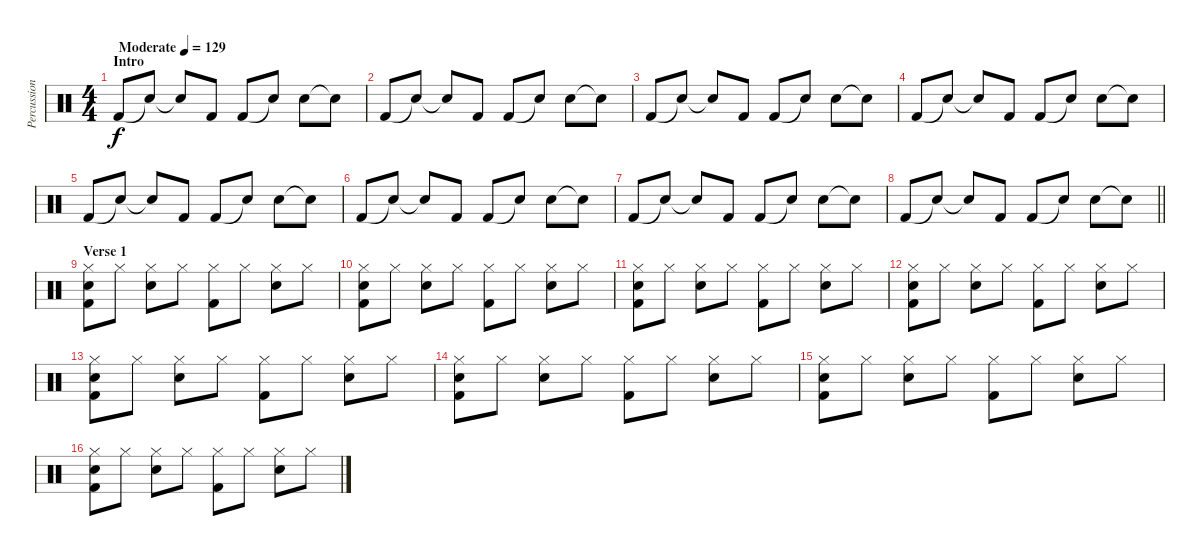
\track ("Percussion" "Percussion") {instrument percussion}
\staff {score}
\articulation defaults
\ts (4 4)
\section ("" "Intro")
\tempo (129 "Moderate")
\clef neutral
\ks c "Kick (hit) 2".8{dy f} "Snare (hit)"{t}.8 "Snare (hit)"{t}.8 "Kick (hit) 2".8 "Kick (hit) 2".8 "Snare (hit)"{t}.8 "Electric Snare (hit)".8 "Snare (hit)"{t}.8
|
"Kick (hit) 2".8 "Snare (hit)"{t}.8 "Snare (hit)"{t}.8 "Kick (hit) 2".8 "Kick (hit) 2".8 "Snare (hit)"{t}.8 "Electric Snare (hit)".8 "Snare (hit)"{t}.8 |
"Kick (hit) 2".8 "Snare (hit)"{t}.8 "Snare (hit)"{t}.8 "Kick (hit) 2".8 "Kick (hit) 2".8 "Snare (hit)"{t}.8 "Electric Snare (hit)".8 "Snare (hit)"{t}.8 |
"Kick (hit) 2".8 "Snare (hit)"{t}.8 "Snare (hit)"{t}.8 "Kick (hit) 2".8 "Kick (hit) 2".8 "Snare (hit)"{t}.8 "Electric Snare (hit)".8 "Snare (hit)"{t}.8 |
"Kick (hit) 2".8 "Snare (hit)"{t}.8 "Snare (hit)"{t}.8 "Kick (hit) 2".8 "Kick (hit) 2".8 "Snare (hit)"{t}.8 "Electric Snare (hit)".8 "Snare (hit)"{t}.8 |
"Kick (hit) 2".8 "Snare (hit)"{t}.8 "Snare (hit)"{t}.8 "Kick (hit) 2".8 "Kick (hit) 2".8 "Snare (hit)"{t}.8 "Electric Snare (hit)".8 "Snare (hit)"{t}.8 |
"Kick (hit) 2".8 "Snare (hit)"{t}.8 "Snare (hit)"{t}.8 "Kick (hit) 2".8 "Kick (hit) 2".8 "Snare (hit)"{t}.8 "Electric Snare (hit)".8 "Snare (hit)"{t}.8 |
\barLineRight lightlight "Kick (hit) 2".8 "Snare (hit)"{t}.8 "Snare (hit)"{t}.8 "Kick (hit) 2".8 "Kick (hit) 2".8 "Snare (hit)"{t}.8 "Electric Snare (hit)".8 "Snare (hit)"{t}.8
|
\section ("" "Verse 1")
("Hi-Hat (closed)" "Electric Snare (hit)" "Kick (hit) 2").8 "Hi-Hat (closed)".8 ("Hi-Hat (closed)" "Electric Snare (hit)").8 "Hi-Hat (closed)".8 ("Hi-Hat (closed)" "Kick (hit) 2").8 "Hi-Hat (closed)".8 ("Hi-Hat (closed)" "Electric Snare (hit)").8 "Hi-Hat (closed)".8 |
("Hi-Hat (closed)" "Electric Snare (hit)" "Kick (hit) 2").8 "Hi-Hat (closed)".8 ("Hi-Hat (closed)" "Electric Snare (hit)").8 "Hi-Hat (closed)".8 ("Hi-Hat (closed)" "Kick (hit) 2").8 "Hi-Hat (closed)".8 ("Hi-Hat (closed)" "Electric Snare (hit)").8 "Hi-Hat (closed)".8 |
("Hi-Hat (closed)" "Electric Snare (hit)" "Kick (hit) 2").8 "Hi-Hat (closed)".8 ("Hi-Hat (closed)" "Electric Snare (hit)").8 "Hi-Hat (closed)".8 ("Hi-Hat (closed)" "Kick (hit) 2").8 "Hi-Hat (closed)".8 ("Hi-Hat (closed)" "Electric Snare (hit)").8 "Hi-Hat (closed)".8 |
("Hi-Hat (closed)" "Electric Snare (hit)" "Kick (hit) 2").8 "Hi-Hat (closed)".8 ("Hi-Hat (closed)" "Electric Snare (hit)").8 "Hi-Hat (closed)".8 ("Hi-Hat (closed)" "Kick (hit) 2").8 "Hi-Hat (closed)".8 ("Hi-Hat (closed)" "Electric Snare (hit)").8 "Hi-Hat (closed)".8 |
("Hi-Hat (closed)" "Electric Snare (hit)" "Kick (hit) 2").8 "Hi-Hat (closed)".8 ("Hi-Hat (closed)" "Electric Snare (hit)").8 "Hi-Hat (closed)".8 ("Hi-Hat (closed)" "Kick (hit) 2").8 "Hi-Hat (closed)".8 ("Hi-Hat (closed)" "Electric Snare (hit)").8 "Hi-Hat (closed)".8 |
("Hi-Hat (closed)" "Electric Snare (hit)" "Kick (hit) 2").8 "Hi-Hat (closed)".8 ("Hi-Hat (closed)" "Electric Snare (hit)").8 "Hi-Hat (closed)".8 ("Hi-Hat (closed)" "Kick (hit) 2").8 "Hi-Hat (closed)".8 ("Hi-Hat (closed)" "Electric Snare (hit)").8 "Hi-Hat (closed)".8 |
("Hi-Hat (closed)" "Electric Snare (hit)" "Kick (hit) 2").8 "Hi-Hat (closed)".8 ("Hi-Hat (closed)" "Electric Snare (hit)").8 "Hi-Hat (closed)".8 ("Hi-Hat (closed)" "Kick (hit) 2").8 "Hi-Hat (closed)".8 ("Hi-Hat (closed)" "Electric Snare (hit)").8 "Hi-Hat (closed)".8 |
("Hi-Hat (closed)" "Electric Snare (hit)" "Kick (hit) 2").8 "Hi-Hat (closed)".8 ("Hi-Hat (closed)" "Electric Snare (hit)").8 "Hi-Hat (closed)".8 ("Hi-Hat (closed)" "Kick (hit) 2").8 "Hi-Hat (closed)".8 ("Hi-Hat (closed)" "Electric Snare (hit)").8 "Hi-Hat (closed)".8
